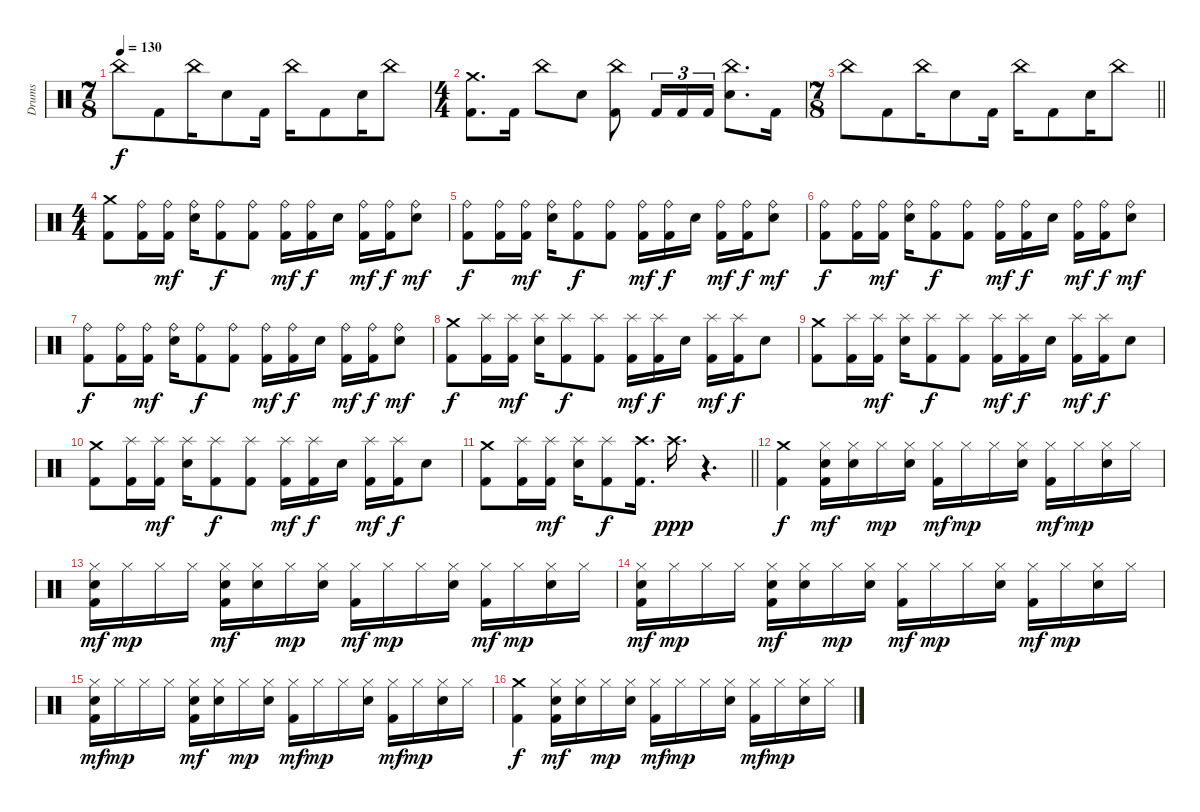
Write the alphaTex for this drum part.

\track ("Drums" "Drums") {instrument percussion}
\staff {score}
\articulation defaults
\ts (7 8)
\tempo 130
\clef neutral
\ks c "China (hit)".8{dy f} "Kick (hit) 2".8 "China (hit)".16 "Electric Snare (hit)".8 "Kick (hit) 2".16 "China (hit)".16 "Kick (hit) 2".8 "Electric Snare (hit)".16 "China (hit)".8
|
\ts (4 4)
("Kick (hit) 2" "Crash medium (hit)").8{d} "Kick (hit) 2".16 "China (hit)".8 "Electric Snare (hit)".8 ("Kick (hit) 2" "China (hit)").8 "Kick (hit) 2".16{tu (3 2)} "Kick (hit) 2".16{tu (3 2)} "Kick (hit) 2".16{tu (3 2)} ("China (hit)" "Electric Snare (hit)").8{d} "Kick (hit) 2".16 |
\ts (7 8)
\barLineRight lightlight "China (hit)".8 "Kick (hit) 2".8 "China (hit)".16 "Electric Snare (hit)".8 "Kick (hit) 2".16 "China (hit)".16 "Kick (hit) 2".8 "Electric Snare (hit)".16 "China (hit)".8
|
\ts (4 4)
("Kick (hit) 2" "Crash medium (hit)").8 ("Kick (hit) 2" "Ride (bell)").16 ("Kick (hit) 2" "Ride (bell)").16{dy mf} ("Ride (bell)" "Electric Snare (hit)").16 ("Kick (hit) 2" "Ride (bell)").8{dy f} ("Kick (hit) 2" "Ride (bell)").8 ("Kick (hit) 2" "Ride (bell)").16{dy mf} ("Kick (hit) 2" "Ride (bell)").16{dy f} "Electric Snare (hit)".16 ("Kick (hit) 2" "Ride (bell)").16{dy mf} ("Kick (hit) 2" "Ride (bell)").16{dy f} ("Ride (bell)" "Electric Snare (hit)").8{dy mf} |
("Kick (hit) 2" "Ride (bell)").8{dy f} ("Kick (hit) 2" "Ride (bell)").16 ("Kick (hit) 2" "Ride (bell)").16{dy mf} ("Ride (bell)" "Electric Snare (hit)").16 ("Kick (hit) 2" "Ride (bell)").8{dy f} ("Kick (hit) 2" "Ride (bell)").8 ("Kick (hit) 2" "Ride (bell)").16{dy mf} ("Kick (hit) 2" "Ride (bell)").16{dy f} "Electric Snare (hit)".16 ("Kick (hit) 2" "Ride (bell)").16{dy mf} ("Kick (hit) 2" "Ride (bell)").16{dy f} ("Ride (bell)" "Electric Snare (hit)").8{dy mf} |
("Kick (hit) 2" "Ride (bell)").8{dy f} ("Kick (hit) 2" "Ride (bell)").16 ("Kick (hit) 2" "Ride (bell)").16{dy mf} ("Ride (bell)" "Electric Snare (hit)").16 ("Kick (hit) 2" "Ride (bell)").8{dy f} ("Kick (hit) 2" "Ride (bell)").8 ("Kick (hit) 2" "Ride (bell)").16{dy mf} ("Kick (hit) 2" "Ride (bell)").16{dy f} "Electric Snare (hit)".16 ("Kick (hit) 2" "Ride (bell)").16{dy mf} ("Kick (hit) 2" "Ride (bell)").16{dy f} ("Ride (bell)" "Electric Snare (hit)").8{dy mf} |
("Kick (hit) 2" "Ride (bell)").8{dy f} ("Kick (hit) 2" "Ride (bell)").16 ("Kick (hit) 2" "Ride (bell)").16{dy mf} ("Ride (bell)" "Electric Snare (hit)").16 ("Kick (hit) 2" "Ride (bell)").8{dy f} ("Kick (hit) 2" "Ride (bell)").8 ("Kick (hit) 2" "Ride (bell)").16{dy mf} ("Kick (hit) 2" "Ride (bell)").16{dy f} "Electric Snare (hit)".16 ("Kick (hit) 2" "Ride (bell)").16{dy mf} ("Kick (hit) 2" "Ride (bell)").16{dy f} ("Ride (bell)" "Electric Snare (hit)").8{dy mf} |
("Kick (hit) 2" "Crash medium (hit)").8{dy f} ("Kick (hit) 2" "Splash (hit)").16 ("Kick (hit) 2" "Splash (hit)").16{dy mf} ("Splash (hit)" "Electric Snare (hit)").16 ("Kick (hit) 2" "Splash (hit)").8{dy f} ("Kick (hit) 2" "Splash (hit)").8 ("Kick (hit) 2" "Splash (hit)").16{dy mf} ("Kick (hit) 2" "Splash (hit)").16{dy f} "Electric Snare (hit)".16 ("Kick (hit) 2" "Splash (hit)").16{dy mf} ("Kick (hit) 2" "Splash (hit)").16{dy f} "Electric Snare (hit)".8 |
("Kick (hit) 2" "Crash medium (hit)").8 ("Kick (hit) 2" "Splash (hit)").16 ("Kick (hit) 2" "Splash (hit)").16{dy mf} ("Splash (hit)" "Electric Snare (hit)").16 ("Kick (hit) 2" "Splash (hit)").8{dy f} ("Kick (hit) 2" "Splash (hit)").8 ("Kick (hit) 2" "Splash (hit)").16{dy mf} ("Kick (hit) 2" "Splash (hit)").16{dy f} "Electric Snare (hit)".16 ("Kick (hit) 2" "Splash (hit)").16{dy mf} ("Kick (hit) 2" "Splash (hit)").16{dy f} "Electric Snare (hit)".8 |
("Kick (hit) 2" "Crash medium (hit)").8 ("Kick (hit) 2" "Splash (hit)").16 ("Kick (hit) 2" "Splash (hit)").16{dy mf} ("Splash (hit)" "Electric Snare (hit)").16 ("Kick (hit) 2" "Splash (hit)").8{dy f} ("Kick (hit) 2" "Splash (hit)").8 ("Kick (hit) 2" "Splash (hit)").16{dy mf} ("Kick (hit) 2" "Splash (hit)").16{dy f} "Electric Snare (hit)".16 ("Kick (hit) 2" "Splash (hit)").16{dy mf} ("Kick (hit) 2" "Splash (hit)").16{dy f} "Electric Snare (hit)".8 |
\barLineRight lightlight
("Kick (hit) 2" "Crash medium (hit)").8 ("Kick (hit) 2" "Splash (hit)").16 ("Kick (hit) 2" "Splash (hit)").16{dy mf} ("Splash (hit)" "Electric Snare (hit)").16 ("Kick (hit) 2" "Splash (hit)").8{dy f} ("Kick (hit) 2" "Crash high (hit)").16{d} "Crash high (hit)".16{d dy ppp} r.4{d} |
("Kick (hit) 2" "Crash medium (hit)").4{dy f} ("Kick (hit) 2" "Hi-Hat (closed)" "Electric Snare (hit)").16{dy mf} ("Hi-Hat (closed)" "Electric Snare (hit)").16 "Hi-Hat (closed)".16{dy mp} ("Hi-Hat (closed)" "Electric Snare (hit)").16 ("Kick (hit) 2" "Hi-Hat (closed)").16{dy mf} "Hi-Hat (closed)".16{dy mp} "Hi-Hat (closed)".16 ("Hi-Hat (closed)" "Electric Snare (hit)").16 ("Kick (hit) 2" "Hi-Hat (closed)").16{dy mf} "Hi-Hat (closed)".16{dy mp} ("Hi-Hat (closed)" "Electric Snare (hit)").16 "Hi-Hat (closed)".16 |
("Kick (hit) 2" "Hi-Hat (closed)" "Electric Snare (hit)").16{dy mf} "Hi-Hat (closed)".16{dy mp} "Hi-Hat (closed)".16 "Hi-Hat (closed)".16 ("Kick (hit) 2" "Hi-Hat (closed)" "Electric Snare (hit)").16{dy mf} ("Hi-Hat (closed)" "Electric Snare (hit)").16 "Hi-Hat (closed)".16{dy mp} ("Hi-Hat (closed)" "Electric Snare (hit)").16 ("Kick (hit) 2" "Hi-Hat (closed)").16{dy mf} "Hi-Hat (closed)".16{dy mp} "Hi-Hat (closed)".16 ("Hi-Hat (closed)" "Electric Snare (hit)").16 ("Kick (hit) 2" "Hi-Hat (closed)").16{dy mf} "Hi-Hat (closed)".16{dy mp} ("Hi-Hat (closed)" "Electric Snare (hit)").16 "Hi-Hat (closed)".16 |
("Kick (hit) 2" "Hi-Hat (closed)" "Electric Snare (hit)").16{dy mf} "Hi-Hat (closed)".16{dy mp} "Hi-Hat (closed)".16 "Hi-Hat (closed)".16 ("Kick (hit) 2" "Hi-Hat (closed)" "Electric Snare (hit)").16{dy mf} ("Hi-Hat (closed)" "Electric Snare (hit)").16 "Hi-Hat (closed)".16{dy mp} ("Hi-Hat (closed)" "Electric Snare (hit)").16 ("Kick (hit) 2" "Hi-Hat (closed)").16{dy mf} "Hi-Hat (closed)".16{dy mp} "Hi-Hat (closed)".16 ("Hi-Hat (closed)" "Electric Snare (hit)").16 ("Kick (hit) 2" "Hi-Hat (closed)").16{dy mf} "Hi-Hat (closed)".16{dy mp} ("Hi-Hat (closed)" "Electric Snare (hit)").16 "Hi-Hat (closed)".16 |
("Kick (hit) 2" "Hi-Hat (closed)" "Electric Snare (hit)").16{dy mf} "Hi-Hat (closed)".16{dy mp} "Hi-Hat (closed)".16 "Hi-Hat (closed)".16 ("Kick (hit) 2" "Hi-Hat (closed)" "Electric Snare (hit)").16{dy mf} ("Hi-Hat (closed)" "Electric Snare (hit)").16 "Hi-Hat (closed)".16{dy mp} ("Hi-Hat (closed)" "Electric Snare (hit)").16 ("Kick (hit) 2" "Hi-Hat (closed)").16{dy mf} "Hi-Hat (closed)".16{dy mp} "Hi-Hat (closed)".16 ("Hi-Hat (closed)" "Electric Snare (hit)").16 ("Kick (hit) 2" "Hi-Hat (closed)").16{dy mf} "Hi-Hat (closed)".16{dy mp} ("Hi-Hat (closed)" "Electric Snare (hit)").16 "Hi-Hat (closed)".16 |
("Kick (hit) 2" "Crash medium (hit)").4{dy f} ("Kick (hit) 2" "Hi-Hat (closed)" "Electric Snare (hit)").16{dy mf} ("Hi-Hat (closed)" "Electric Snare (hit)").16 "Hi-Hat (closed)".16{dy mp} ("Hi-Hat (closed)" "Electric Snare (hit)").16 ("Kick (hit) 2" "Hi-Hat (closed)").16{dy mf} "Hi-Hat (closed)".16{dy mp} "Hi-Hat (closed)".16 ("Hi-Hat (closed)" "Electric Snare (hit)").16 ("Kick (hit) 2" "Hi-Hat (closed)").16{dy mf} "Hi-Hat (closed)".16{dy mp} ("Hi-Hat (closed)" "Electric Snare (hit)").16 "Hi-Hat (closed)".16
